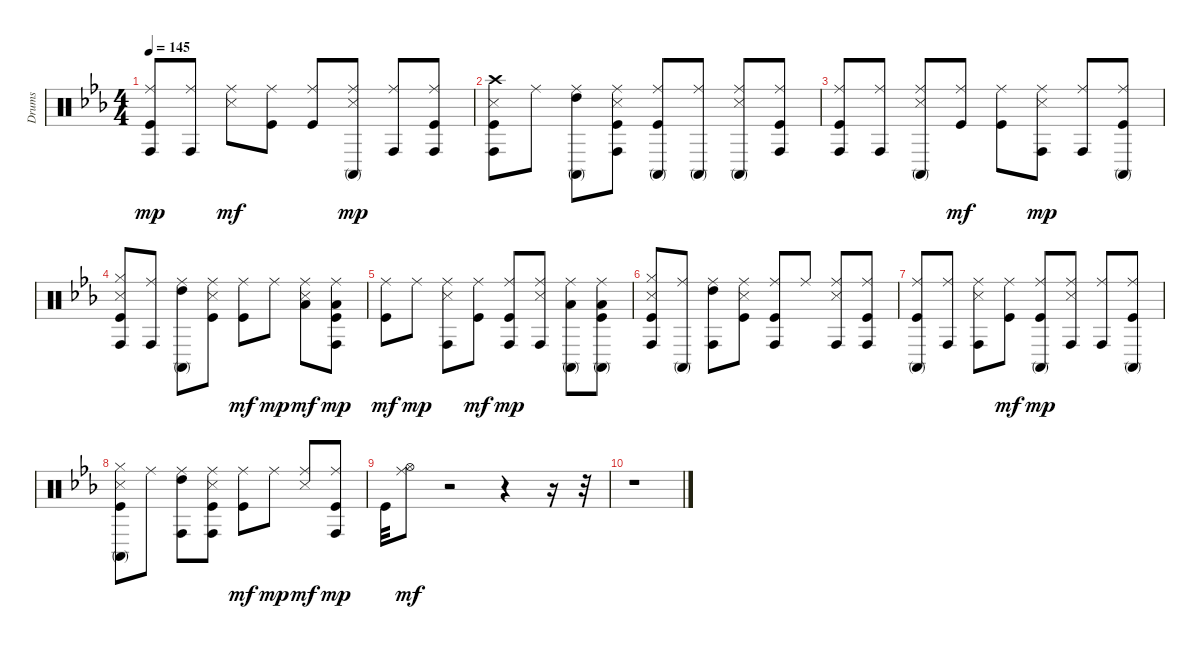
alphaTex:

\track ("Drums" "Drums") {instrument percussion}
\staff {score}
\articulation defaults
\ts (4 4)
\tempo 145
\clef neutral
\ks eb
("Kick (hit)" "Ride (middle)" "Conga high (hit)").8{dy mp} ("Ride (middle)" "Conga high (hit)").8 ("Snare (side stick) 3" "Ride (middle)").8{dy mf} ("Kick (hit)" "Ride (middle)").8 ("Kick (hit)" "Ride (middle)").8 ("Snare (side stick) 3" "Ride (middle)" "Conga high (mute)").8{dy mp} ("Ride (middle)" "Conga high (hit)").8 ("Kick (hit)" "Ride (middle)" "Conga high (hit)").8 |
("Kick (hit)" "Snare (side stick) 3" "Crash high (hit)" "Conga high (hit)").8 "Ride (middle)".8 ("High Tom (hit)" "Ride (middle)" "Conga high (mute)").8 ("Kick (hit)" "Snare (side stick) 3" "Ride (middle)" "Conga high (hit)").8 ("Kick (hit)" "Ride (middle)" "Conga high (mute)").8 ("Ride (middle)" "Conga high (mute)").8 ("Snare (side stick) 3" "Ride (middle)" "Conga high (mute)").8 ("Kick (hit)" "Ride (middle)" "Conga high (hit)").8 |
("Kick (hit)" "Ride (middle)" "Conga high (hit)").8 ("Ride (middle)" "Conga high (hit)").8 ("Snare (side stick) 3" "Ride (middle)" "Conga high (mute)").8 ("Kick (hit)" "Ride (middle)").8{dy mf} ("Kick (hit)" "Ride (middle)").8 ("Snare (side stick) 3" "Ride (middle)" "Conga high (hit)").8{dy mp} ("Ride (middle)" "Conga high (hit)").8 ("Kick (hit)" "Ride (middle)" "Conga high (mute)").8 |
("Kick (hit)" "Snare (side stick) 3" "Hi-Hat (closed)" "Conga high (hit)").8 ("Ride (middle)" "Conga high (hit)").8 ("High Tom (hit)" "Ride (middle)" "Conga high (mute)").8 ("Kick (hit)" "Snare (side stick) 3" "Ride (middle)").8 ("Kick (hit)" "Ride (middle)").8{dy mf} "Ride (middle)".8{dy mp} ("Snare (side stick) 3" "Low Tom (hit)" "Ride (middle)").8{dy mf} ("Kick (hit)" "Low Tom (hit)" "Ride (middle)" "Conga high (hit)").8{dy mp} |
("Kick (hit)" "Ride (middle)").8{dy mf} "Ride (middle)".8{dy mp} ("Snare (side stick) 3" "Ride (middle)" "Conga high (hit)").8 ("Kick (hit)" "Ride (middle)").8{dy mf} ("Kick (hit)" "Ride (middle)" "Conga high (hit)").8{dy mp} ("Snare (side stick) 3" "Ride (middle)" "Conga high (hit)").8 ("Low Tom (hit)" "Ride (middle)" "Conga high (mute)").8 ("Kick (hit)" "Low Tom (hit)" "Ride (middle)" "Conga high (mute)").8 |
("Kick (hit)" "Snare (side stick) 3" "Hi-Hat (closed)" "Conga high (hit)").8 ("Ride (middle)" "Conga high (mute)").8 ("High Tom (hit)" "Ride (middle)" "Conga high (hit)").8 ("Kick (hit)" "Snare (side stick) 3" "Ride (middle)").8 ("Kick (hit)" "Ride (middle)" "Conga high (hit)").8 "Ride (middle)".8 ("Snare (side stick) 3" "Ride (middle)" "Conga high (hit)").8 ("Kick (hit)" "Ride (middle)" "Conga high (hit)").8 |
("Kick (hit)" "Ride (middle)" "Conga high (mute)").8 ("Ride (middle)" "Conga high (hit)").8 ("Snare (side stick) 3" "Ride (middle)" "Conga high (hit)").8 ("Kick (hit)" "Ride (middle)").8{dy mf} ("Kick (hit)" "Ride (middle)" "Conga high (mute)").8{dy mp} ("Snare (side stick) 3" "Ride (middle)" "Conga high (hit)").8 ("Ride (middle)" "Conga high (hit)").8 ("Kick (hit)" "Ride (middle)" "Conga high (mute)").8 |
("Kick (hit)" "Snare (side stick) 3" "Hi-Hat (closed)" "Conga high (mute)").8 "Ride (middle)".8 ("High Tom (hit)" "Ride (middle)" "Conga high (hit)").8 ("Kick (hit)" "Snare (side stick) 3" "Ride (middle)" "Conga high (hit)").8 ("Kick (hit)" "Ride (middle)").8{dy mf} "Ride (middle)".8{dy mp} ("Snare (side stick) 3" "Ride (middle)").8{dy mf} ("Kick (hit)" "Ride (middle)" "Conga high (hit)").8{dy mp} |
"Kick (hit)".32 ("Hi-Hat (open)" "Ride (middle)").8{dy mf} r.2 r.4 r.16 r.32 |
r.1
